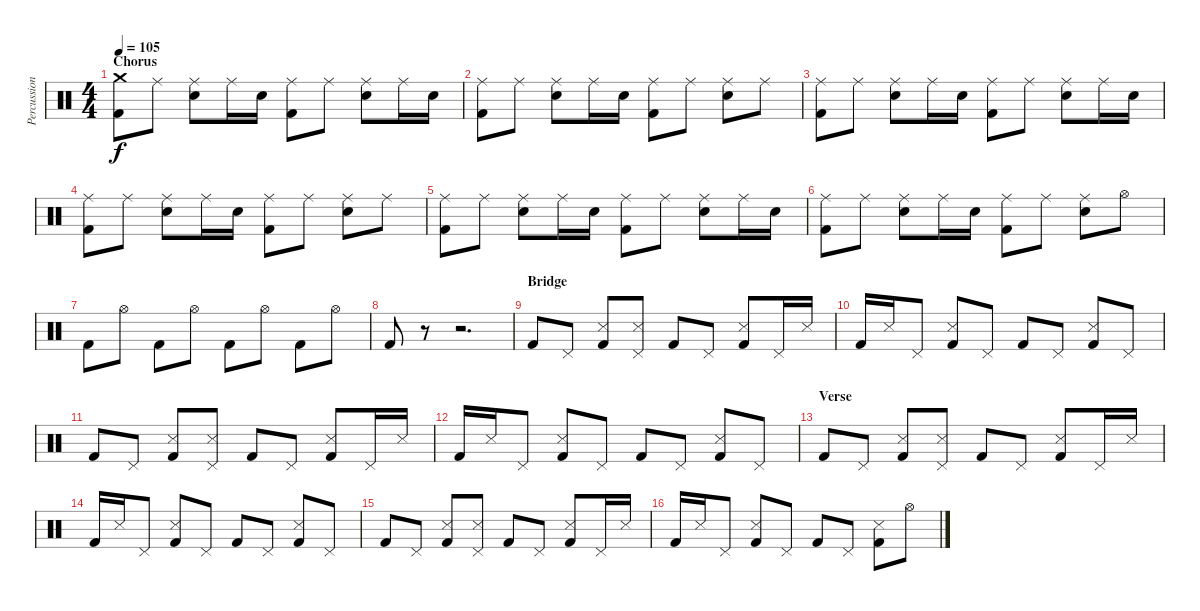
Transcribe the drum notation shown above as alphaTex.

\track ("Percussion" "Percussion") {instrument percussion}
\staff {score}
\articulation defaults
\ts (4 4)
\section ("" "Chorus")
\tempo 105
\clef neutral
\ks c
("Crash medium (hit)" "Kick (hit) 2").8{dy f} "Ride (middle)".8 ("Ride (middle)" "Electric Snare (hit)").8 "Ride (middle)".16 "Electric Snare (hit)".16 ("Ride (middle)" "Kick (hit) 2").8 "Ride (middle)".8 ("Ride (middle)" "Electric Snare (hit)").8 "Ride (middle)".16 "Electric Snare (hit)".16 |
("Ride (middle)" "Kick (hit) 2").8 "Ride (middle)".8 ("Ride (middle)" "Electric Snare (hit)").8 "Ride (middle)".16 "Electric Snare (hit)".16 ("Ride (middle)" "Kick (hit) 2").8 "Ride (middle)".8 ("Ride (middle)" "Electric Snare (hit)").8 "Ride (middle)".8 |
("Ride (middle)" "Kick (hit) 2").8 "Ride (middle)".8 ("Ride (middle)" "Electric Snare (hit)").8 "Ride (middle)".16 "Electric Snare (hit)".16 ("Ride (middle)" "Kick (hit) 2").8 "Ride (middle)".8 ("Ride (middle)" "Electric Snare (hit)").8 "Ride (middle)".16 "Electric Snare (hit)".16 |
("Ride (middle)" "Kick (hit) 2").8 "Ride (middle)".8 ("Ride (middle)" "Electric Snare (hit)").8 "Ride (middle)".16 "Electric Snare (hit)".16 ("Ride (middle)" "Kick (hit) 2").8 "Ride (middle)".8 ("Ride (middle)" "Electric Snare (hit)").8 "Ride (middle)".8 |
("Ride (middle)" "Kick (hit) 2").8 "Ride (middle)".8 ("Ride (middle)" "Electric Snare (hit)").8 "Ride (middle)".16 "Electric Snare (hit)".16 ("Ride (middle)" "Kick (hit) 2").8 "Ride (middle)".8 ("Ride (middle)" "Electric Snare (hit)").8 "Ride (middle)".16 "Electric Snare (hit)".16 |
("Ride (middle)" "Kick (hit) 2").8 "Ride (middle)".8 ("Ride (middle)" "Electric Snare (hit)").8 "Ride (middle)".16 "Electric Snare (hit)".16 ("Ride (middle)" "Kick (hit) 2").8 "Ride (middle)".8 ("Ride (middle)" "Electric Snare (hit)").8 "Hi-Hat (open)".8 |
"Kick (hit) 2".8 "Hi-Hat (open)".8 "Kick (hit) 2".8 "Hi-Hat (open)".8 "Kick (hit) 2".8 "Hi-Hat (open)".8 "Kick (hit) 2".8 "Hi-Hat (open)".8 |
"Kick (hit) 2".8 r.8 r.2{d} |
\section ("" "Bridge")
"Kick (hit) 2".8 "Pedal Hi-Hat (hit)".8 ("Snare (side stick) 3" "Kick (hit) 2").8 ("Pedal Hi-Hat (hit)" "Snare (side stick) 3").8 "Kick (hit) 2".8 "Pedal Hi-Hat (hit)".8 ("Snare (side stick) 3" "Kick (hit) 2").8 "Pedal Hi-Hat (hit)".16 "Snare (side stick) 3".16 |
"Kick (hit) 2".16 "Snare (side stick) 3".16 "Pedal Hi-Hat (hit)".8 ("Snare (side stick) 3" "Kick (hit) 2").8 "Pedal Hi-Hat (hit)".8 "Kick (hit) 2".8 "Pedal Hi-Hat (hit)".8 ("Snare (side stick) 3" "Kick (hit) 2").8 "Pedal Hi-Hat (hit)".8 |
"Kick (hit) 2".8 "Pedal Hi-Hat (hit)".8 ("Snare (side stick) 3" "Kick (hit) 2").8 ("Pedal Hi-Hat (hit)" "Snare (side stick) 3").8 "Kick (hit) 2".8 "Pedal Hi-Hat (hit)".8 ("Snare (side stick) 3" "Kick (hit) 2").8 "Pedal Hi-Hat (hit)".16 "Snare (side stick) 3".16 |
"Kick (hit) 2".16 "Snare (side stick) 3".16 "Pedal Hi-Hat (hit)".8 ("Snare (side stick) 3" "Kick (hit) 2").8 "Pedal Hi-Hat (hit)".8 "Kick (hit) 2".8 "Pedal Hi-Hat (hit)".8 ("Snare (side stick) 3" "Kick (hit) 2").8 "Pedal Hi-Hat (hit)".8 |
\section ("" "Verse")
"Kick (hit) 2".8 "Pedal Hi-Hat (hit)".8 ("Snare (side stick) 3" "Kick (hit) 2").8 ("Pedal Hi-Hat (hit)" "Snare (side stick) 3").8 "Kick (hit) 2".8 "Pedal Hi-Hat (hit)".8 ("Snare (side stick) 3" "Kick (hit) 2").8 "Pedal Hi-Hat (hit)".16 "Snare (side stick) 3".16 |
"Kick (hit) 2".16 "Snare (side stick) 3".16 "Pedal Hi-Hat (hit)".8 ("Snare (side stick) 3" "Kick (hit) 2").8 "Pedal Hi-Hat (hit)".8 "Kick (hit) 2".8 "Pedal Hi-Hat (hit)".8 ("Snare (side stick) 3" "Kick (hit) 2").8 "Pedal Hi-Hat (hit)".8 |
"Kick (hit) 2".8 "Pedal Hi-Hat (hit)".8 ("Snare (side stick) 3" "Kick (hit) 2").8 ("Pedal Hi-Hat (hit)" "Snare (side stick) 3").8 "Kick (hit) 2".8 "Pedal Hi-Hat (hit)".8 ("Snare (side stick) 3" "Kick (hit) 2").8 "Pedal Hi-Hat (hit)".16 "Snare (side stick) 3".16 |
"Kick (hit) 2".16 "Snare (side stick) 3".16 "Pedal Hi-Hat (hit)".8 ("Snare (side stick) 3" "Kick (hit) 2").8 "Pedal Hi-Hat (hit)".8 "Kick (hit) 2".8 "Pedal Hi-Hat (hit)".8 ("Snare (side stick) 3" "Kick (hit) 2").8 "Hi-Hat (open)".8
